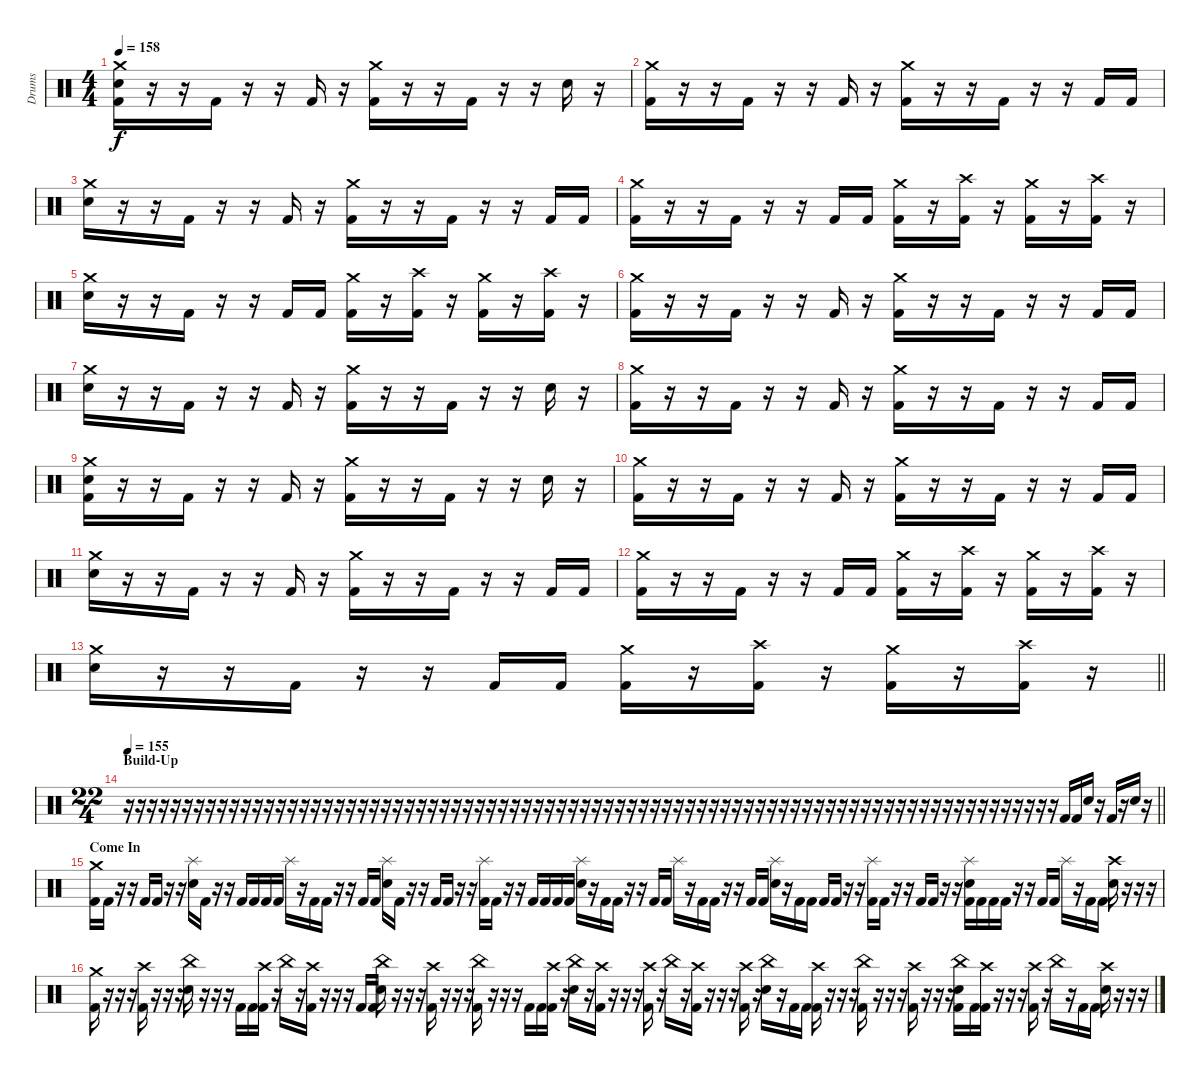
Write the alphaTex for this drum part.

\track ("Drums" "Drums") {instrument percussion}
\staff {score}
\articulation defaults
\ts (4 4)
\tempo 158
\clef neutral
\ks c
("Crash medium (hit)" "Electric Snare (hit)" "Kick (hit) 2").16{dy f} r.16 r.16 "Kick (hit) 2".16 r.16 r.16 "Kick (hit) 2".16 r.16 ("Crash medium (hit)" "Kick (hit) 2").16 r.16 r.16 "Kick (hit) 2".16 r.16 r.16 "Electric Snare (hit)".16 r.16 |
("Crash medium (hit)" "Kick (hit) 2").16 r.16 r.16 "Kick (hit) 2".16 r.16 r.16 "Kick (hit) 2".16 r.16 ("Crash medium (hit)" "Kick (hit) 2").16 r.16 r.16 "Kick (hit) 2".16 r.16 r.16 "Kick (hit) 2".16 "Kick (hit) 2".16 |
("Crash medium (hit)" "Electric Snare (hit)").16 r.16 r.16 "Kick (hit) 2".16 r.16 r.16 "Kick (hit) 2".16 r.16 ("Crash medium (hit)" "Kick (hit) 2").16 r.16 r.16 "Kick (hit) 2".16 r.16 r.16 "Kick (hit) 2".16 "Kick (hit) 2".16 |
("Crash medium (hit)" "Kick (hit) 2").16 r.16 r.16 "Kick (hit) 2".16 r.16 r.16 "Kick (hit) 2".16 "Kick (hit) 2".16 ("Crash medium (hit)" "Kick (hit) 2").16 r.16 ("Crash high (hit)" "Kick (hit) 2").16 r.16 ("Crash medium (hit)" "Kick (hit) 2").16 r.16 ("Crash high (hit)" "Kick (hit) 2").16 r.16 |
("Crash medium (hit)" "Electric Snare (hit)").16 r.16 r.16 "Kick (hit) 2".16 r.16 r.16 "Kick (hit) 2".16 "Kick (hit) 2".16 ("Crash medium (hit)" "Kick (hit) 2").16 r.16 ("Crash high (hit)" "Kick (hit) 2").16 r.16 ("Crash medium (hit)" "Kick (hit) 2").16 r.16 ("Crash high (hit)" "Kick (hit) 2").16 r.16 |
("Crash medium (hit)" "Kick (hit) 2").16 r.16 r.16 "Kick (hit) 2".16 r.16 r.16 "Kick (hit) 2".16 r.16 ("Crash medium (hit)" "Kick (hit) 2").16 r.16 r.16 "Kick (hit) 2".16 r.16 r.16 "Kick (hit) 2".16 "Kick (hit) 2".16 |
("Crash medium (hit)" "Electric Snare (hit)").16 r.16 r.16 "Kick (hit) 2".16 r.16 r.16 "Kick (hit) 2".16 r.16 ("Crash medium (hit)" "Kick (hit) 2").16 r.16 r.16 "Kick (hit) 2".16 r.16 r.16 "Electric Snare (hit)".16 r.16 |
("Crash medium (hit)" "Kick (hit) 2").16 r.16 r.16 "Kick (hit) 2".16 r.16 r.16 "Kick (hit) 2".16 r.16 ("Crash medium (hit)" "Kick (hit) 2").16 r.16 r.16 "Kick (hit) 2".16 r.16 r.16 "Kick (hit) 2".16 "Kick (hit) 2".16 |
("Crash medium (hit)" "Electric Snare (hit)" "Kick (hit) 2").16 r.16 r.16 "Kick (hit) 2".16 r.16 r.16 "Kick (hit) 2".16 r.16 ("Crash medium (hit)" "Kick (hit) 2").16 r.16 r.16 "Kick (hit) 2".16 r.16 r.16 "Electric Snare (hit)".16 r.16 |
("Crash medium (hit)" "Kick (hit) 2").16 r.16 r.16 "Kick (hit) 2".16 r.16 r.16 "Kick (hit) 2".16 r.16 ("Crash medium (hit)" "Kick (hit) 2").16 r.16 r.16 "Kick (hit) 2".16 r.16 r.16 "Kick (hit) 2".16 "Kick (hit) 2".16 |
("Crash medium (hit)" "Electric Snare (hit)").16 r.16 r.16 "Kick (hit) 2".16 r.16 r.16 "Kick (hit) 2".16 r.16 ("Crash medium (hit)" "Kick (hit) 2").16 r.16 r.16 "Kick (hit) 2".16 r.16 r.16 "Kick (hit) 2".16 "Kick (hit) 2".16 |
("Crash medium (hit)" "Kick (hit) 2").16 r.16 r.16 "Kick (hit) 2".16 r.16 r.16 "Kick (hit) 2".16 "Kick (hit) 2".16 ("Crash medium (hit)" "Kick (hit) 2").16 r.16 ("Crash high (hit)" "Kick (hit) 2").16 r.16 ("Crash medium (hit)" "Kick (hit) 2").16 r.16 ("Crash high (hit)" "Kick (hit) 2").16 r.16 |
\barLineRight lightlight
("Crash medium (hit)" "Electric Snare (hit)").16 r.16 r.16 "Kick (hit) 2".16 r.16 r.16 "Kick (hit) 2".16 "Kick (hit) 2".16 ("Crash medium (hit)" "Kick (hit) 2").16 r.16 ("Crash high (hit)" "Kick (hit) 2").16 r.16 ("Crash medium (hit)" "Kick (hit) 2").16 r.16 ("Crash high (hit)" "Kick (hit) 2").16 r.16 |
\ts (22 4)
\section ("" "Build-Up")
\tempo 155
\barLineRight lightlight
r.16 r.16 r.16 r.16 r.16 r.16 r.16 r.16 r.16 r.16 r.16 r.16 r.16 r.16 r.16 r.16 r.16 r.16 r.16 r.16 r.16 r.16 r.16 r.16 r.16 r.16 r.16 r.16 r.16 r.16 r.16 r.16 r.16 r.16 r.16 r.16 r.16 r.16 r.16 r.16 r.16 r.16 r.16 r.16 r.16 r.16 r.16 r.16 r.16 r.16 r.16 r.16 r.16 r.16 r.16 r.16 r.16 r.16 r.16 r.16 r.16 r.16 r.16 r.16 r.16 r.16 r.16 r.16 r.16 r.16 r.16 r.16 r.16 r.16 r.16 r.16 r.16 r.16 r.16 r.16 "Kick (hit) 2".16 "Kick (hit) 2".16 "Electric Snare (hit)".16 r.16 "Kick (hit) 2".16 r.16 "Electric Snare (hit)".16 r.16 |
\section ("" "Come In")
("Crash medium (hit)" "Kick (hit) 2").16 "Kick (hit) 2".16 r.16 r.16 "Kick (hit) 2".16 "Kick (hit) 2".16 r.16 r.16 ("Splash (hit)" "Electric Snare (hit)").16 "Kick (hit) 2".16 r.16 r.16 "Kick (hit) 2".16 "Kick (hit) 2".16 "Kick (hit) 2".16 "Kick (hit) 2".16 "Splash (hit)".16 r.16 "Kick (hit) 2".16 "Kick (hit) 2".16 r.16 r.16 "Kick (hit) 2".16 "Kick (hit) 2".16 ("Splash (hit)" "Electric Snare (hit)").16 "Kick (hit) 2".16 r.16 r.16 "Kick (hit) 2".16 "Kick (hit) 2".16 r.16 r.16 ("Splash (hit)" "Kick (hit) 2").16 "Kick (hit) 2".16 r.16 r.16 "Kick (hit) 2".16 "Kick (hit) 2".16 "Kick (hit) 2".16 "Kick (hit) 2".16 ("Splash (hit)" "Electric Snare (hit)").16 r.16 "Kick (hit) 2".16 "Kick (hit) 2".16 r.16 r.16 "Kick (hit) 2".16 "Kick (hit) 2".16 "Splash (hit)".16 r.16 "Kick (hit) 2".16 "Kick (hit) 2".16 r.16 r.16 "Kick (hit) 2".16 "Kick (hit) 2".16 ("Splash (hit)" "Electric Snare (hit)").16 r.16 "Kick (hit) 2".16 "Kick (hit) 2".16 "Kick (hit) 2".16 "Kick (hit) 2".16 r.16 r.16 ("Splash (hit)" "Kick (hit) 2").16 "Kick (hit) 2".16 r.16 r.16 "Kick (hit) 2".16 "Kick (hit) 2".16 r.16 r.16 ("Splash (hit)" "Electric Snare (hit)" "Kick (hit) 2").16 "Kick (hit) 2".16 "Kick (hit) 2".16 "Kick (hit) 2".16 r.16 r.16 "Kick (hit) 2".16 "Kick (hit) 2".16 "Splash (hit)".16 r.16 "Kick (hit) 2".16 "Kick (hit) 2".16 ("Crash high (hit)" "Electric Snare (hit)").16 r.16 r.16 r.16 |
("Crash medium (hit)" "Kick (hit) 2").16 r.16 r.16 r.16 ("Crash high (hit)" "Kick (hit) 2").16 r.16 r.16 r.16 ("China (hit)" "Electric Snare (hit)").16 r.16 r.16 r.16 "Kick (hit) 2".16 "Kick (hit) 2".16 ("Crash high (hit)" "Kick (hit) 2").16 r.16 "China (hit)".16 r.16 ("Crash high (hit)" "Kick (hit) 2").16 r.16 r.16 r.16 "Kick (hit) 2".16 "Kick (hit) 2".16 ("China (hit)" "Electric Snare (hit)").16 r.16 r.16 r.16 ("Crash high (hit)" "Kick (hit) 2").16 r.16 r.16 r.16 ("China (hit)" "Kick (hit) 2").16 r.16 r.16 r.16 "Kick (hit) 2".16 "Kick (hit) 2".16 ("Crash high (hit)" "Kick (hit) 2").16 r.16 ("China (hit)" "Electric Snare (hit)").16 r.16 ("Crash high (hit)" "Kick (hit) 2").16 r.16 r.16 r.16 ("Crash high (hit)" "Kick (hit) 2").16 r.16 "China (hit)".16 r.16 ("Crash high (hit)" "Kick (hit) 2").16 r.16 r.16 r.16 ("Crash high (hit)" "Kick (hit) 2").16 r.16 ("China (hit)" "Electric Snare (hit)").16 r.16 "Kick (hit) 2".16 "Kick (hit) 2".16 ("Crash high (hit)" "Kick (hit) 2").16 r.16 r.16 r.16 ("China (hit)" "Kick (hit) 2").16 r.16 r.16 r.16 ("Crash high (hit)" "Kick (hit) 2").16 r.16 r.16 r.16 ("China (hit)" "Electric Snare (hit)" "Kick (hit) 2").16 "Kick (hit) 2".16 ("Crash high (hit)" "Kick (hit) 2").16 r.16 r.16 r.16 ("Crash high (hit)" "Kick (hit) 2").16 r.16 "China (hit)".16 r.16 "Kick (hit) 2".16 "Kick (hit) 2".16 ("Crash high (hit)" "Electric Snare (hit)").16 r.16 r.16 r.16
